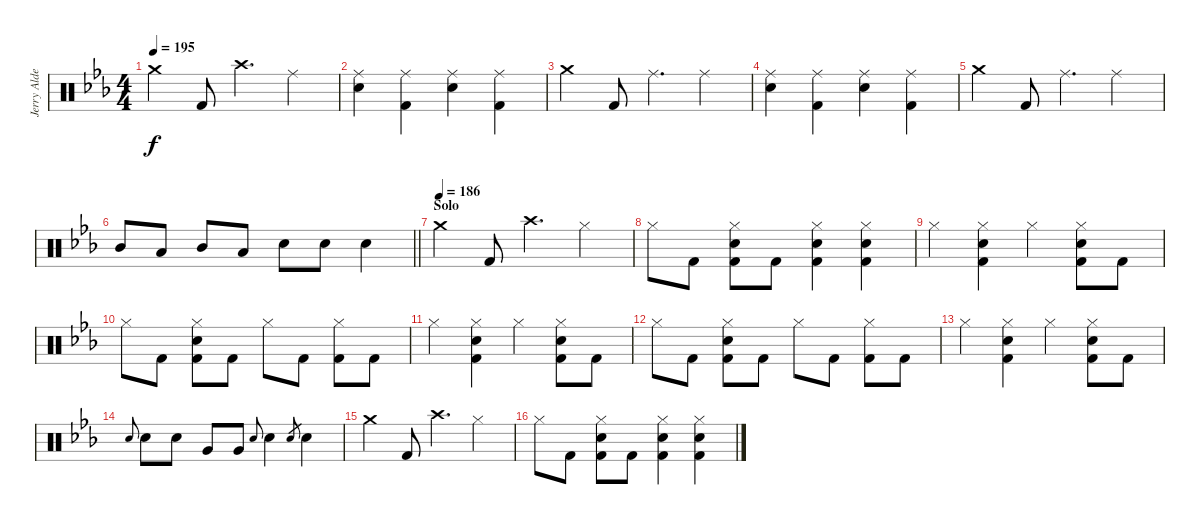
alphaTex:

\track ("Jerry Alder - Drums" "Jerry Alde") {instrument percussion}
\staff {score}
\articulation defaults
\ts (4 4)
\tempo 195
\clef neutral
\ks eb "Crash medium (hit)".4{dy f} "Kick (hit) 2".8 "Crash high (hit)".4{d} "Ride (middle)".4
|
("Ride (middle)" "Snare (hit) 2").4 ("Ride (middle)" "Kick (hit) 2").4 ("Ride (middle)" "Snare (hit) 2").4 ("Ride (middle)" "Kick (hit) 2").4 |
"Crash medium (hit)".4 "Kick (hit) 2".8 "Ride (middle)".4{d} "Ride (middle)".4 |
("Ride (middle)" "Snare (hit) 2").4 ("Ride (middle)" "Kick (hit) 2").4 ("Ride (middle)" "Snare (hit) 2").4 ("Ride (middle)" "Kick (hit) 2").4 |
"Crash medium (hit)".4 "Kick (hit) 2".8 "Ride (middle)".4{d} "Ride (middle)".4 |
\barLineRight lightlight "Mid Tom (hit)".8 "Low Tom (hit)".8 "Mid Tom (hit)".8 "Low Tom (hit)".8 "Snare (hit) 2".8 "Snare (hit) 2".8 "Snare (hit) 2".4
|
\section ("" "Solo")
\tempo (186)
"Crash medium (hit)".4 "Kick (hit) 2".8 "Crash high (hit)".4{d} "Hi-Hat (closed)".4 |
"Hi-Hat (closed)".8 "Kick (hit) 2".8 ("Hi-Hat (closed)" "Snare (hit) 2" "Kick (hit) 2").8 "Kick (hit) 2".8 ("Hi-Hat (closed)" "Snare (hit) 2" "Kick (hit) 2").4 ("Hi-Hat (closed)" "Snare (hit) 2" "Kick (hit) 2").4 |
"Hi-Hat (closed)".4 ("Hi-Hat (closed)" "Snare (hit) 2" "Kick (hit) 2").4 "Hi-Hat (closed)".4 ("Hi-Hat (closed)" "Snare (hit) 2" "Kick (hit) 2").8 "Kick (hit) 2".8 |
"Hi-Hat (closed)".8 "Kick (hit) 2".8 ("Hi-Hat (closed)" "Snare (hit) 2" "Kick (hit) 2").8 "Kick (hit) 2".8 "Hi-Hat (closed)".8 "Kick (hit) 2".8 ("Hi-Hat (closed)" "Kick (hit) 2").8 "Kick (hit) 2".8 |
"Hi-Hat (closed)".4 ("Hi-Hat (closed)" "Snare (hit) 2" "Kick (hit) 2").4 "Hi-Hat (closed)".4 ("Hi-Hat (closed)" "Snare (hit) 2" "Kick (hit) 2").8 "Kick (hit) 2".8 |
"Hi-Hat (closed)".8 "Kick (hit) 2".8 ("Hi-Hat (closed)" "Snare (hit) 2" "Kick (hit) 2").8 "Kick (hit) 2".8 "Hi-Hat (closed)".8 "Kick (hit) 2".8 ("Hi-Hat (closed)" "Kick (hit) 2").8 "Kick (hit) 2".8 |
"Hi-Hat (closed)".4 ("Hi-Hat (closed)" "Snare (hit) 2" "Kick (hit) 2").4 "Hi-Hat (closed)".4 ("Hi-Hat (closed)" "Snare (hit) 2" "Kick (hit) 2").8 "Kick (hit) 2".8 |
"Snare (hit) 2".8{gr onbeat} "Snare (hit) 2".8 "Snare (hit) 2".8 "Very Low Tom (hit)".8 "Very Low Tom (hit)".8 "Snare (hit) 2".8{gr onbeat} "Snare (hit) 2".4 "Snare (hit) 2".8{gr} "Snare (hit) 2".4 |
"Crash medium (hit)".4 "Kick (hit) 2".8 "Crash high (hit)".4{d} "Hi-Hat (closed)".4 |
"Hi-Hat (closed)".8 "Kick (hit) 2".8 ("Hi-Hat (closed)" "Snare (hit) 2" "Kick (hit) 2").8 "Kick (hit) 2".8 ("Hi-Hat (closed)" "Snare (hit) 2" "Kick (hit) 2").4 ("Hi-Hat (closed)" "Snare (hit) 2" "Kick (hit) 2").4
